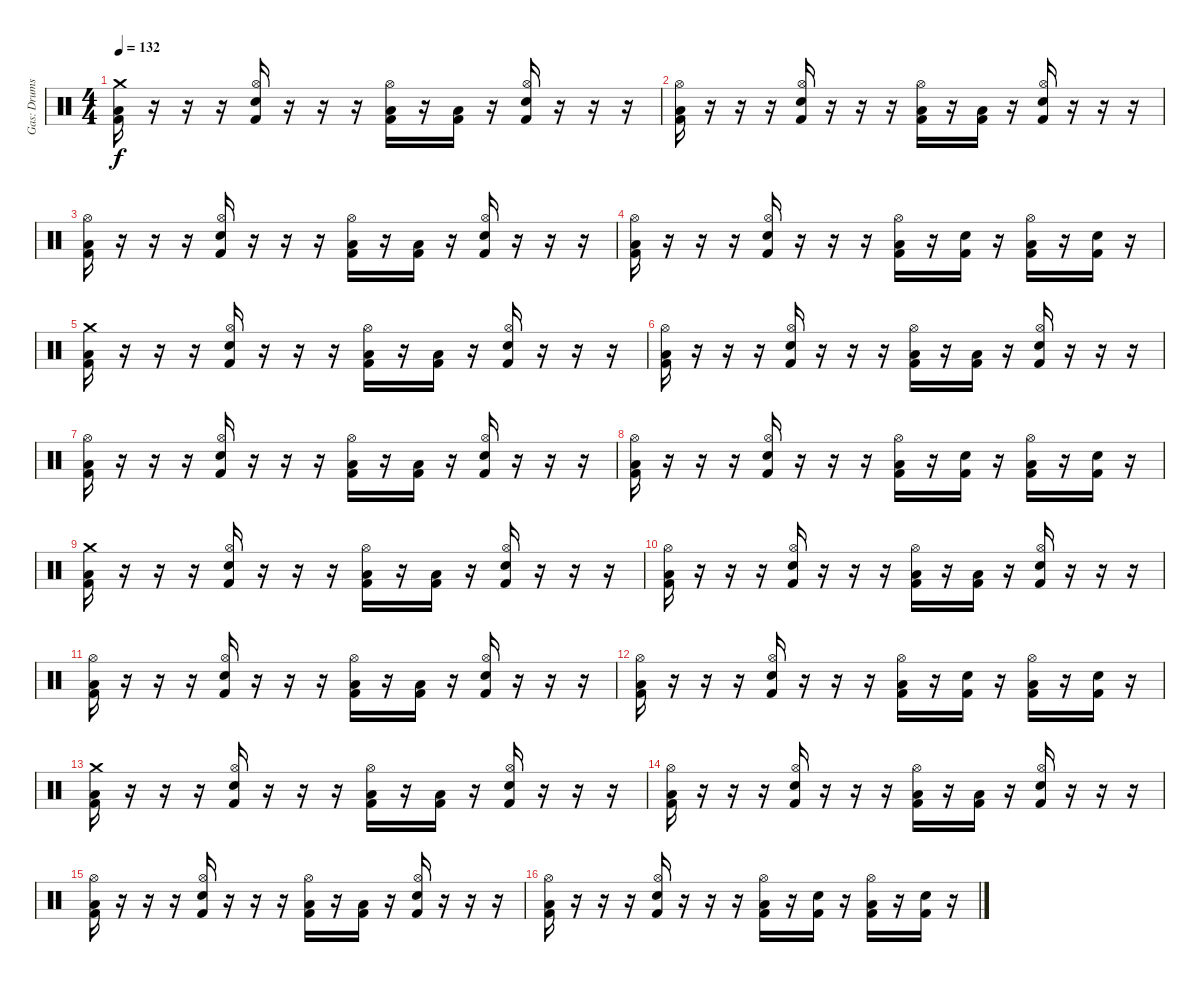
\track ("Gas: Drums" "Gas: Drums") {instrument percussion}
\staff {score}
\articulation defaults
\ts (4 4)
\tempo 132
\clef neutral
\ks c
("Crash medium (hit)" "Low Tom (hit)" "Kick (hit) 2").16{dy f} r.16 r.16 r.16 ("Hi-Hat (open)" "Electric Snare (hit)" "Kick (hit) 2").16 r.16 r.16 r.16 ("Hi-Hat (open)" "Low Tom (hit)" "Kick (hit) 2").16 r.16 ("Low Tom (hit)" "Kick (hit) 2").16 r.16 ("Hi-Hat (open)" "Electric Snare (hit)" "Kick (hit) 2").16 r.16 r.16 r.16 |
("Hi-Hat (open)" "Low Tom (hit)" "Kick (hit) 2").16 r.16 r.16 r.16 ("Hi-Hat (open)" "Electric Snare (hit)" "Kick (hit) 2").16 r.16 r.16 r.16 ("Hi-Hat (open)" "Low Tom (hit)" "Kick (hit) 2").16 r.16 ("Low Tom (hit)" "Kick (hit) 2").16 r.16 ("Hi-Hat (open)" "Electric Snare (hit)" "Kick (hit) 2").16 r.16 r.16 r.16 |
("Hi-Hat (open)" "Low Tom (hit)" "Kick (hit) 2").16 r.16 r.16 r.16 ("Hi-Hat (open)" "Electric Snare (hit)" "Kick (hit) 2").16 r.16 r.16 r.16 ("Hi-Hat (open)" "Low Tom (hit)" "Kick (hit) 2").16 r.16 ("Low Tom (hit)" "Kick (hit) 2").16 r.16 ("Hi-Hat (open)" "Electric Snare (hit)" "Kick (hit) 2").16 r.16 r.16 r.16 |
("Hi-Hat (open)" "Low Tom (hit)" "Kick (hit) 2").16 r.16 r.16 r.16 ("Hi-Hat (open)" "Electric Snare (hit)" "Kick (hit) 2").16 r.16 r.16 r.16 ("Hi-Hat (open)" "Low Tom (hit)" "Kick (hit) 2").16 r.16 ("Electric Snare (hit)" "Kick (hit) 2").16 r.16 ("Hi-Hat (open)" "Low Tom (hit)" "Kick (hit) 2").16 r.16 ("Electric Snare (hit)" "Kick (hit) 2").16 r.16 |
("Crash medium (hit)" "Low Tom (hit)" "Kick (hit) 2").16 r.16 r.16 r.16 ("Hi-Hat (open)" "Electric Snare (hit)" "Kick (hit) 2").16 r.16 r.16 r.16 ("Hi-Hat (open)" "Low Tom (hit)" "Kick (hit) 2").16 r.16 ("Low Tom (hit)" "Kick (hit) 2").16 r.16 ("Hi-Hat (open)" "Electric Snare (hit)" "Kick (hit) 2").16 r.16 r.16 r.16 |
("Hi-Hat (open)" "Low Tom (hit)" "Kick (hit) 2").16 r.16 r.16 r.16 ("Hi-Hat (open)" "Electric Snare (hit)" "Kick (hit) 2").16 r.16 r.16 r.16 ("Hi-Hat (open)" "Low Tom (hit)" "Kick (hit) 2").16 r.16 ("Low Tom (hit)" "Kick (hit) 2").16 r.16 ("Hi-Hat (open)" "Electric Snare (hit)" "Kick (hit) 2").16 r.16 r.16 r.16 |
("Hi-Hat (open)" "Low Tom (hit)" "Kick (hit) 2").16 r.16 r.16 r.16 ("Hi-Hat (open)" "Electric Snare (hit)" "Kick (hit) 2").16 r.16 r.16 r.16 ("Hi-Hat (open)" "Low Tom (hit)" "Kick (hit) 2").16 r.16 ("Low Tom (hit)" "Kick (hit) 2").16 r.16 ("Hi-Hat (open)" "Electric Snare (hit)" "Kick (hit) 2").16 r.16 r.16 r.16 |
("Hi-Hat (open)" "Low Tom (hit)" "Kick (hit) 2").16 r.16 r.16 r.16 ("Hi-Hat (open)" "Electric Snare (hit)" "Kick (hit) 2").16 r.16 r.16 r.16 ("Hi-Hat (open)" "Low Tom (hit)" "Kick (hit) 2").16 r.16 ("Electric Snare (hit)" "Kick (hit) 2").16 r.16 ("Hi-Hat (open)" "Low Tom (hit)" "Kick (hit) 2").16 r.16 ("Electric Snare (hit)" "Kick (hit) 2").16 r.16 |
("Crash medium (hit)" "Low Tom (hit)" "Kick (hit) 2").16 r.16 r.16 r.16 ("Hi-Hat (open)" "Electric Snare (hit)" "Kick (hit) 2").16 r.16 r.16 r.16 ("Hi-Hat (open)" "Low Tom (hit)" "Kick (hit) 2").16 r.16 ("Low Tom (hit)" "Kick (hit) 2").16 r.16 ("Hi-Hat (open)" "Electric Snare (hit)" "Kick (hit) 2").16 r.16 r.16 r.16 |
("Hi-Hat (open)" "Low Tom (hit)" "Kick (hit) 2").16 r.16 r.16 r.16 ("Hi-Hat (open)" "Electric Snare (hit)" "Kick (hit) 2").16 r.16 r.16 r.16 ("Hi-Hat (open)" "Low Tom (hit)" "Kick (hit) 2").16 r.16 ("Low Tom (hit)" "Kick (hit) 2").16 r.16 ("Hi-Hat (open)" "Electric Snare (hit)" "Kick (hit) 2").16 r.16 r.16 r.16 |
("Hi-Hat (open)" "Low Tom (hit)" "Kick (hit) 2").16 r.16 r.16 r.16 ("Hi-Hat (open)" "Electric Snare (hit)" "Kick (hit) 2").16 r.16 r.16 r.16 ("Hi-Hat (open)" "Low Tom (hit)" "Kick (hit) 2").16 r.16 ("Low Tom (hit)" "Kick (hit) 2").16 r.16 ("Hi-Hat (open)" "Electric Snare (hit)" "Kick (hit) 2").16 r.16 r.16 r.16 |
("Hi-Hat (open)" "Low Tom (hit)" "Kick (hit) 2").16 r.16 r.16 r.16 ("Hi-Hat (open)" "Electric Snare (hit)" "Kick (hit) 2").16 r.16 r.16 r.16 ("Hi-Hat (open)" "Low Tom (hit)" "Kick (hit) 2").16 r.16 ("Electric Snare (hit)" "Kick (hit) 2").16 r.16 ("Hi-Hat (open)" "Low Tom (hit)" "Kick (hit) 2").16 r.16 ("Electric Snare (hit)" "Kick (hit) 2").16 r.16 |
("Crash medium (hit)" "Low Tom (hit)" "Kick (hit) 2").16 r.16 r.16 r.16 ("Hi-Hat (open)" "Electric Snare (hit)" "Kick (hit) 2").16 r.16 r.16 r.16 ("Hi-Hat (open)" "Low Tom (hit)" "Kick (hit) 2").16 r.16 ("Low Tom (hit)" "Kick (hit) 2").16 r.16 ("Hi-Hat (open)" "Electric Snare (hit)" "Kick (hit) 2").16 r.16 r.16 r.16 |
("Hi-Hat (open)" "Low Tom (hit)" "Kick (hit) 2").16 r.16 r.16 r.16 ("Hi-Hat (open)" "Electric Snare (hit)" "Kick (hit) 2").16 r.16 r.16 r.16 ("Hi-Hat (open)" "Low Tom (hit)" "Kick (hit) 2").16 r.16 ("Low Tom (hit)" "Kick (hit) 2").16 r.16 ("Hi-Hat (open)" "Electric Snare (hit)" "Kick (hit) 2").16 r.16 r.16 r.16 |
("Hi-Hat (open)" "Low Tom (hit)" "Kick (hit) 2").16 r.16 r.16 r.16 ("Hi-Hat (open)" "Electric Snare (hit)" "Kick (hit) 2").16 r.16 r.16 r.16 ("Hi-Hat (open)" "Low Tom (hit)" "Kick (hit) 2").16 r.16 ("Low Tom (hit)" "Kick (hit) 2").16 r.16 ("Hi-Hat (open)" "Electric Snare (hit)" "Kick (hit) 2").16 r.16 r.16 r.16 |
("Hi-Hat (open)" "Low Tom (hit)" "Kick (hit) 2").16 r.16 r.16 r.16 ("Hi-Hat (open)" "Electric Snare (hit)" "Kick (hit) 2").16 r.16 r.16 r.16 ("Hi-Hat (open)" "Low Tom (hit)" "Kick (hit) 2").16 r.16 ("Electric Snare (hit)" "Kick (hit) 2").16 r.16 ("Hi-Hat (open)" "Low Tom (hit)" "Kick (hit) 2").16 r.16 ("Electric Snare (hit)" "Kick (hit) 2").16 r.16
